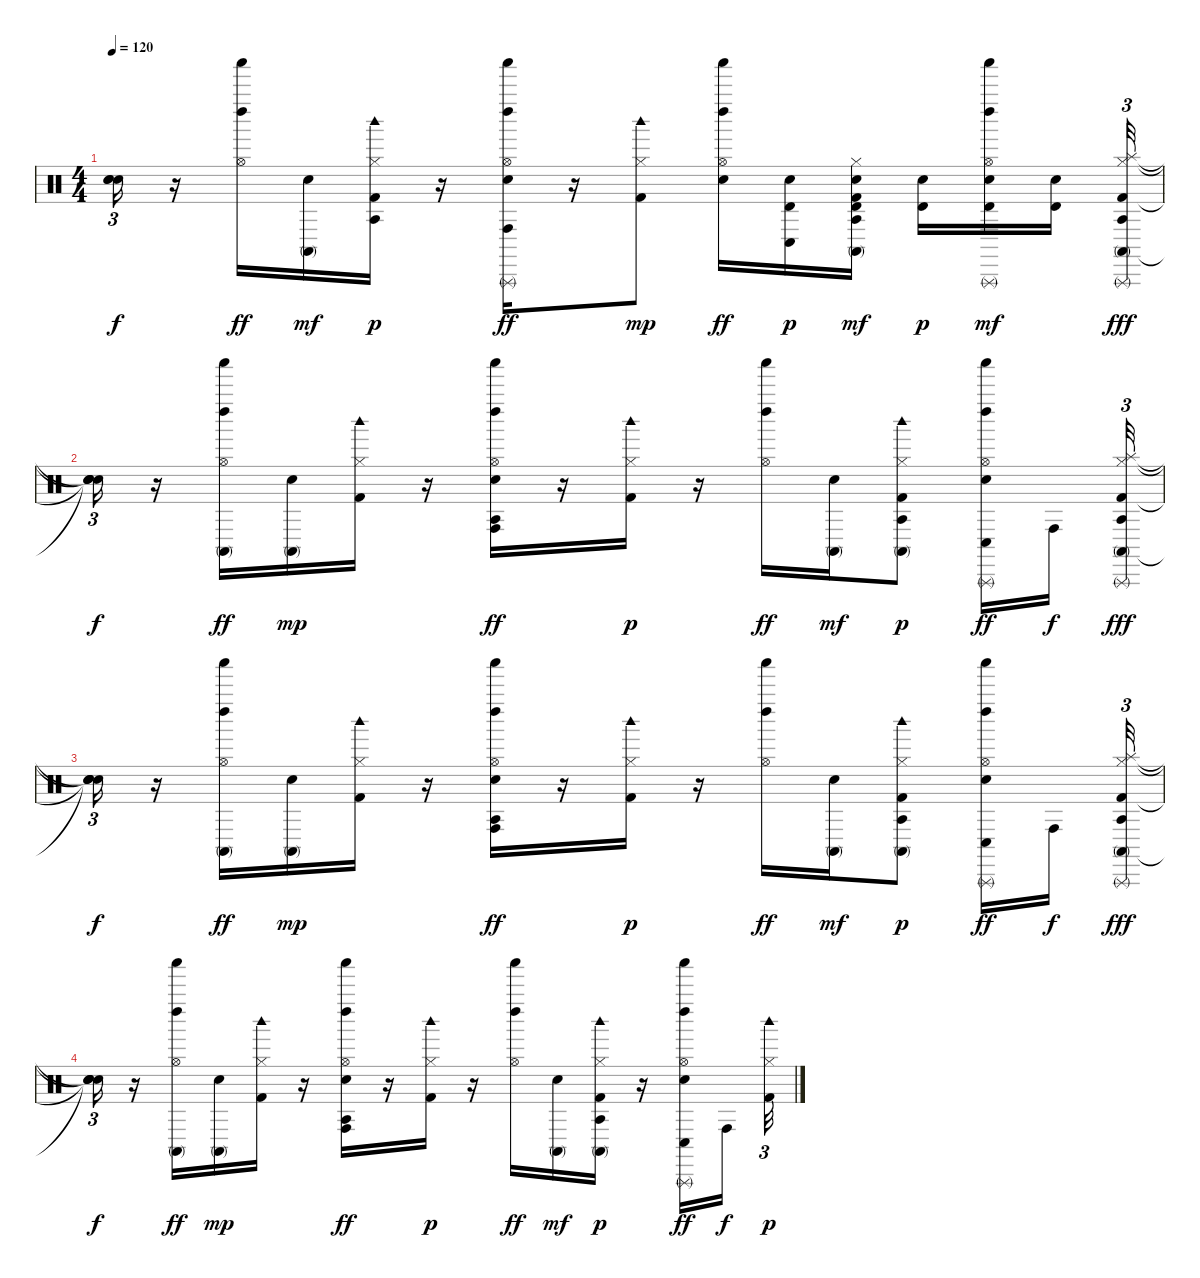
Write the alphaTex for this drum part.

\track "" {instrument percussion}
\staff {score}
\articulation defaults
\ts (4 4)
\tempo 120
\clef neutral
\ks c
("Snare (hit)"{t} "Snare (hit)"{t} "Snare (hit)"{t}).16{tu (3 2) dy f} r.16 ("Shaker (hit)" "Left Maraca (hit)" "Hi-Hat (open)").16{dy ff} ("Electric Snare (hit)" "Conga high (mute)").16{dy mf} ("Kick (hit) 2" "Hi-Hat (closed)" "Agogo tow (hit)" "Woodblock high (hit)").16{dy p} r.16 ("Shaker (hit)" "Left Maraca (hit)" "Electric Snare (hit)" "Conga high (hit)" "Hi-Hat (open)" "Triangle (rnute)").16{dy ff} r.16 ("Kick (hit) 2" "Hi-Hat (closed)" "Woodblock high (hit)").8{dy mp} ("Shaker (hit)" "Left Maraca (hit)" "Electric Snare (hit)" "Hi-Hat (open)").16{dy ff} ("Electric Snare (hit)" "Conga low (hit)" "Timbale high (hit)").16{dy p} ("Kick (hit) 2" "Electric Snare (hit)" "Conga high (mute)" "Hi-Hat (closed)" "Timbale high (hit)" "Agogo tow (hit)").16{dy mf} ("Electric Snare (hit)" "Timbale high (hit)").16{dy p} ("Shaker (hit)" "Left Maraca (hit)" "Electric Snare (hit)" "Hi-Hat (open)" "Timbale high (hit)" "Triangle (rnute)").16{dy mf} ("Electric Snare (hit)" "Timbale high (hit)").16{beam splitsecondary} ("Kick (hit) 2" "Conga high (mute)" "Hi-Hat (closed)" "Splash (hit)" "Triangle (rnute)" "Agogo tow (hit)").32{tu (3 2) dy fff} |
("Snare (hit)"{t} "Snare (hit)"{t} "Snare (hit)"{t} "Snare (hit)"{t}).16{tu (3 2) dy f} r.16 ("Shaker (hit)" "Left Maraca (hit)" "Conga high (mute)" "Hi-Hat (open)").16{dy ff} ("Electric Snare (hit)" "Conga high (mute)").16{dy mp} ("Kick (hit) 2" "Hi-Hat (closed)" "Woodblock high (hit)").16 r.16 ("Shaker (hit)" "Left Maraca (hit)" "Electric Snare (hit)" "Conga high (hit)" "Hi-Hat (open)" "Agogo tow (hit)").16{dy ff} r.16 ("Kick (hit) 2" "Hi-Hat (closed)" "Woodblock high (hit)").16{dy p} r.16 ("Shaker (hit)" "Left Maraca (hit)" "Hi-Hat (open)").16{dy ff} ("Electric Snare (hit)" "Conga high (mute)").16{dy mf} ("Kick (hit) 2" "Conga high (mute)" "Hi-Hat (closed)" "Agogo tow (hit)" "Woodblock high (hit)").8{dy p} ("Shaker (hit)" "Left Maraca (hit)" "Electric Snare (hit)" "Conga low (hit)" "Hi-Hat (open)" "Triangle (rnute)").16{dy ff} "Conga high (hit)".16{dy f beam splitsecondary} ("Kick (hit) 2" "Conga high (mute)" "Hi-Hat (closed)" "Splash (hit)" "Triangle (rnute)" "Agogo tow (hit)").32{tu (3 2) dy fff} |
("Snare (hit)"{t} "Snare (hit)"{t} "Snare (hit)"{t} "Snare (hit)"{t}).16{tu (3 2) dy f} r.16 ("Shaker (hit)" "Left Maraca (hit)" "Conga high (mute)" "Hi-Hat (open)").16{dy ff} ("Electric Snare (hit)" "Conga high (mute)").16{dy mp} ("Kick (hit) 2" "Hi-Hat (closed)" "Woodblock high (hit)").16 r.16 ("Shaker (hit)" "Left Maraca (hit)" "Electric Snare (hit)" "Conga high (hit)" "Hi-Hat (open)" "Agogo tow (hit)").16{dy ff} r.16 ("Kick (hit) 2" "Hi-Hat (closed)" "Woodblock high (hit)").16{dy p} r.16 ("Shaker (hit)" "Left Maraca (hit)" "Hi-Hat (open)").16{dy ff} ("Electric Snare (hit)" "Conga high (mute)").16{dy mf} ("Kick (hit) 2" "Conga high (mute)" "Hi-Hat (closed)" "Agogo tow (hit)" "Woodblock high (hit)").8{dy p} ("Shaker (hit)" "Left Maraca (hit)" "Electric Snare (hit)" "Conga low (hit)" "Hi-Hat (open)" "Triangle (rnute)").16{dy ff} "Conga high (hit)".16{dy f beam splitsecondary} ("Kick (hit) 2" "Conga high (mute)" "Hi-Hat (closed)" "Splash (hit)" "Triangle (rnute)" "Agogo tow (hit)").32{tu (3 2) dy fff} |
("Snare (hit)"{t} "Snare (hit)"{t} "Snare (hit)"{t} "Snare (hit)"{t}).16{tu (3 2) dy f} r.16 ("Shaker (hit)" "Left Maraca (hit)" "Conga high (mute)" "Hi-Hat (open)").16{dy ff} ("Electric Snare (hit)" "Conga high (mute)").16{dy mp} ("Kick (hit) 2" "Hi-Hat (closed)" "Woodblock high (hit)").16 r.16 ("Shaker (hit)" "Left Maraca (hit)" "Electric Snare (hit)" "Conga high (hit)" "Hi-Hat (open)" "Agogo tow (hit)").16{dy ff} r.16 ("Kick (hit) 2" "Hi-Hat (closed)" "Woodblock high (hit)").16{dy p} r.16 ("Shaker (hit)" "Left Maraca (hit)" "Hi-Hat (open)").16{dy ff} ("Electric Snare (hit)" "Conga high (mute)").16{dy mf} ("Kick (hit) 2" "Conga high (mute)" "Hi-Hat (closed)" "Agogo tow (hit)" "Woodblock high (hit)").16{dy p} r.16 ("Shaker (hit)" "Left Maraca (hit)" "Electric Snare (hit)" "Conga low (hit)" "Hi-Hat (open)" "Triangle (rnute)").16{dy ff} "Conga high (hit)".16{dy f beam splitsecondary} ("Kick (hit) 2" "Hi-Hat (closed)" "Woodblock high (hit)").32{tu (3 2) dy p}
